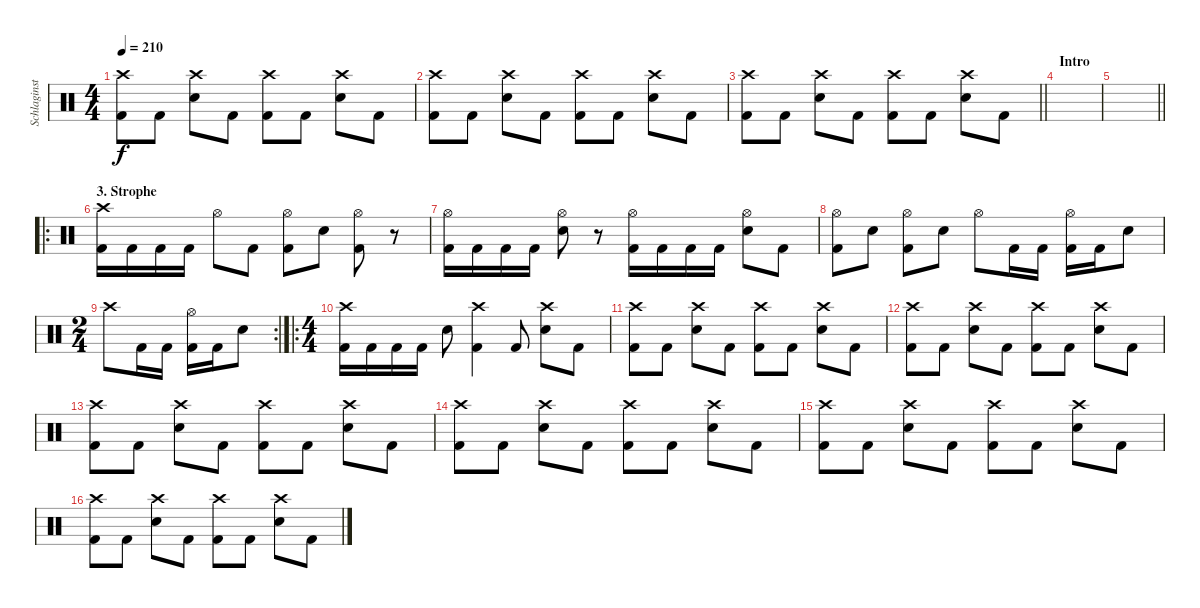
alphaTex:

\track ("Schlaginstrumente - Auswahl" "Schlaginst") {instrument percussion}
\staff {score}
\articulation defaults
\ts (4 4)
\tempo 210
\clef neutral
\ks c
("Crash high (hit)" "Kick (hit) 2").8{dy f} "Kick (hit) 2".8 ("Crash high (hit)" "Snare (hit) 2").8 "Kick (hit) 2".8 ("Crash high (hit)" "Kick (hit) 2").8 "Kick (hit) 2".8 ("Crash high (hit)" "Snare (hit) 2").8 "Kick (hit) 2".8 |
("Crash high (hit)" "Kick (hit) 2").8 "Kick (hit) 2".8 ("Crash high (hit)" "Snare (hit) 2").8 "Kick (hit) 2".8 ("Crash high (hit)" "Kick (hit) 2").8 "Kick (hit) 2".8 ("Crash high (hit)" "Snare (hit) 2").8 "Kick (hit) 2".8 |
\barLineRight lightlight
("Crash high (hit)" "Kick (hit) 2").8 "Kick (hit) 2".8 ("Crash high (hit)" "Snare (hit) 2").8 "Kick (hit) 2".8 ("Crash high (hit)" "Kick (hit) 2").8 "Kick (hit) 2".8 ("Crash high (hit)" "Snare (hit) 2").8 "Kick (hit) 2".8 |
\section ("" "Intro")
|
\barLineRight lightlight
|
\ro
\section ("" "3. Strophe")
("Crash high (hit)" "Kick (hit) 2").16 "Kick (hit) 2".16 "Kick (hit) 2".16 "Kick (hit) 2".16 "Hi-Hat (open)".8 "Kick (hit) 2".8 ("Hi-Hat (open)" "Kick (hit) 2").8 "Snare (hit) 2".8 ("Hi-Hat (open)" "Kick (hit) 2").8 r.8 |
("Hi-Hat (open)" "Kick (hit) 2").16 "Kick (hit) 2".16 "Kick (hit) 2".16 "Kick (hit) 2".16 ("Hi-Hat (open)" "Snare (hit) 2").8 r.8 ("Hi-Hat (open)" "Kick (hit) 2").16 "Kick (hit) 2".16 "Kick (hit) 2".16 "Kick (hit) 2".16 ("Hi-Hat (open)" "Snare (hit) 2").8 "Kick (hit) 2".8 |
("Hi-Hat (open)" "Kick (hit) 2").8 "Snare (hit) 2".8 ("Hi-Hat (open)" "Kick (hit) 2").8 "Snare (hit) 2".8 "Hi-Hat (open)".8 "Kick (hit) 2".16 "Kick (hit) 2".16 ("Hi-Hat (open)" "Kick (hit) 2").16 "Kick (hit) 2".16 "Snare (hit) 2".8 |
\rc 2
\ts (2 4)
"Crash high (hit)".8 "Kick (hit) 2".16 "Kick (hit) 2".16 ("Hi-Hat (open)" "Kick (hit) 2").16 "Kick (hit) 2".16 "Snare (hit) 2".8 |
\ro
\ts (4 4)
("Crash high (hit)" "Kick (hit) 2").16 "Kick (hit) 2".16 "Kick (hit) 2".16 "Kick (hit) 2".16 "Snare (hit) 2".8 ("Crash high (hit)" "Kick (hit) 2").4 "Kick (hit) 2".8 ("Crash high (hit)" "Snare (hit) 2").8 "Kick (hit) 2".8 |
("Crash high (hit)" "Kick (hit) 2").8 "Kick (hit) 2".8 ("Crash high (hit)" "Snare (hit) 2").8 "Kick (hit) 2".8 ("Crash high (hit)" "Kick (hit) 2").8 "Kick (hit) 2".8 ("Crash high (hit)" "Snare (hit) 2").8 "Kick (hit) 2".8 |
("Crash high (hit)" "Kick (hit) 2").8 "Kick (hit) 2".8 ("Crash high (hit)" "Snare (hit) 2").8 "Kick (hit) 2".8 ("Crash high (hit)" "Kick (hit) 2").8 "Kick (hit) 2".8 ("Crash high (hit)" "Snare (hit) 2").8 "Kick (hit) 2".8 |
("Crash high (hit)" "Kick (hit) 2").8 "Kick (hit) 2".8 ("Crash high (hit)" "Snare (hit) 2").8 "Kick (hit) 2".8 ("Crash high (hit)" "Kick (hit) 2").8 "Kick (hit) 2".8 ("Crash high (hit)" "Snare (hit) 2").8 "Kick (hit) 2".8 |
("Crash high (hit)" "Kick (hit) 2").8 "Kick (hit) 2".8 ("Crash high (hit)" "Snare (hit) 2").8 "Kick (hit) 2".8 ("Crash high (hit)" "Kick (hit) 2").8 "Kick (hit) 2".8 ("Crash high (hit)" "Snare (hit) 2").8 "Kick (hit) 2".8 |
("Crash high (hit)" "Kick (hit) 2").8 "Kick (hit) 2".8 ("Crash high (hit)" "Snare (hit) 2").8 "Kick (hit) 2".8 ("Crash high (hit)" "Kick (hit) 2").8 "Kick (hit) 2".8 ("Crash high (hit)" "Snare (hit) 2").8 "Kick (hit) 2".8 |
("Crash high (hit)" "Kick (hit) 2").8 "Kick (hit) 2".8 ("Crash high (hit)" "Snare (hit) 2").8 "Kick (hit) 2".8 ("Crash high (hit)" "Kick (hit) 2").8 "Kick (hit) 2".8 ("Crash high (hit)" "Snare (hit) 2").8 "Kick (hit) 2".8
